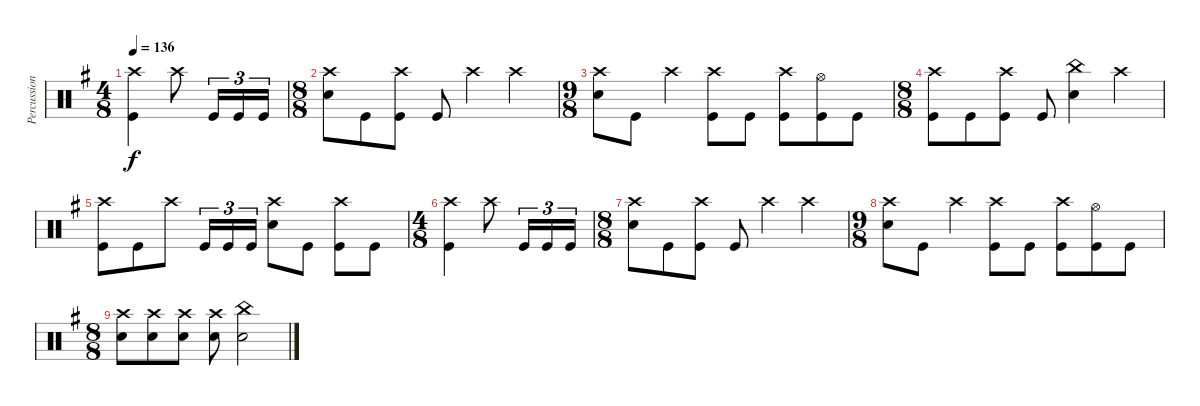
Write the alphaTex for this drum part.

\track ("Percussion" "Percussion") {instrument percussion}
\staff {score}
\articulation defaults
\ts (4 8)
\tempo 136
\clef neutral
\ks g
("Crash high (hit)" "Kick (hit)").4{dy f} "Crash high (hit)".8 "Kick (hit)".16{tu (3 2)} "Kick (hit)".16{tu (3 2)} "Kick (hit)".16{tu (3 2)} |
\ts (8 8)
("Crash high (hit)" "Electric Snare (hit)").8 "Kick (hit)".8 ("Crash high (hit)" "Kick (hit)").8 "Kick (hit)".8 "Crash high (hit)".4 "Crash high (hit)".4 |
\ts (9 8)
("Crash high (hit)" "Electric Snare (hit)").8 "Kick (hit)".8 "Crash high (hit)".4 ("Crash high (hit)" "Kick (hit)").8 "Kick (hit)".8 ("Crash high (hit)" "Kick (hit)").8 ("Hi-Hat (open)" "Kick (hit)").8 "Kick (hit)".8 |
\ts (8 8)
("Crash high (hit)" "Kick (hit)").8 "Kick (hit)".8 ("Crash high (hit)" "Kick (hit)").8 "Kick (hit)".8 ("China (hit)" "Electric Snare (hit)").4 "Crash high (hit)".4 |
("Crash high (hit)" "Kick (hit)").8 "Kick (hit)".8 "Crash high (hit)".8 "Kick (hit)".16{tu (3 2)} "Kick (hit)".16{tu (3 2)} "Kick (hit)".16{tu (3 2)} ("Crash high (hit)" "Electric Snare (hit)").8 "Kick (hit)".8 ("Crash high (hit)" "Kick (hit)").8 "Kick (hit)".8 |
\ts (4 8)
("Crash high (hit)" "Kick (hit)").4 "Crash high (hit)".8 "Kick (hit)".16{tu (3 2)} "Kick (hit)".16{tu (3 2)} "Kick (hit)".16{tu (3 2)} |
\ts (8 8)
("Crash high (hit)" "Electric Snare (hit)").8 "Kick (hit)".8 ("Crash high (hit)" "Kick (hit)").8 "Kick (hit)".8 "Crash high (hit)".4 "Crash high (hit)".4 |
\ts (9 8)
("Crash high (hit)" "Electric Snare (hit)").8 "Kick (hit)".8 "Crash high (hit)".4 ("Crash high (hit)" "Kick (hit)").8 "Kick (hit)".8 ("Crash high (hit)" "Kick (hit)").8 ("Hi-Hat (open)" "Kick (hit)").8 "Kick (hit)".8 |
\ts (8 8)
("Crash high (hit)" "Electric Snare (hit)").8 ("Crash high (hit)" "Electric Snare (hit)").8 ("Crash high (hit)" "Electric Snare (hit)").8 ("Crash high (hit)" "Electric Snare (hit)").8 ("China (hit)" "Electric Snare (hit)").2
